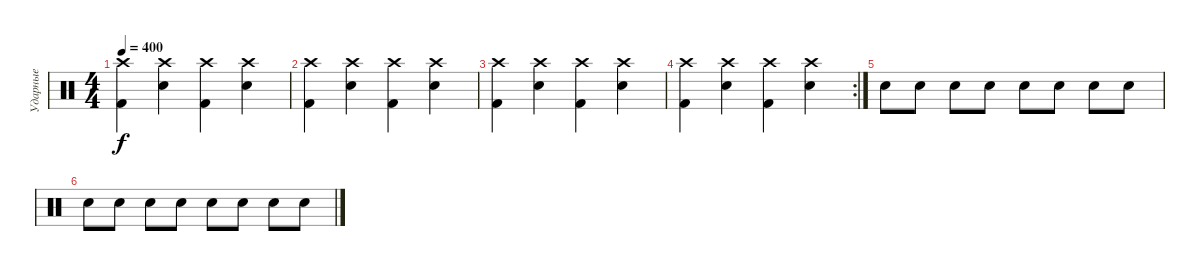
\track ("Ударные" "Ударные") {instrument percussion}
\staff {score}
\articulation defaults
\ts (4 4)
\tempo 400
\clef neutral
\ks c
("Kick (hit) 2" "Crash high (hit)").4{dy f} ("Electric Snare (hit)" "Crash high (hit)").4 ("Kick (hit) 2" "Crash high (hit)").4 ("Electric Snare (hit)" "Crash high (hit)").4 |
("Kick (hit) 2" "Crash high (hit)").4 ("Electric Snare (hit)" "Crash high (hit)").4 ("Kick (hit) 2" "Crash high (hit)").4 ("Electric Snare (hit)" "Crash high (hit)").4 |
("Kick (hit) 2" "Crash high (hit)").4 ("Electric Snare (hit)" "Crash high (hit)").4 ("Kick (hit) 2" "Crash high (hit)").4 ("Electric Snare (hit)" "Crash high (hit)").4 |
\rc 2
("Kick (hit) 2" "Crash high (hit)").4 ("Electric Snare (hit)" "Crash high (hit)").4 ("Kick (hit) 2" "Crash high (hit)").4 ("Electric Snare (hit)" "Crash high (hit)").4 |
"Electric Snare (hit)".8 "Electric Snare (hit)".8 "Electric Snare (hit)".8 "Electric Snare (hit)".8 "Electric Snare (hit)".8 "Electric Snare (hit)".8 "Electric Snare (hit)".8 "Electric Snare (hit)".8 |
"Electric Snare (hit)".8 "Electric Snare (hit)".8 "Electric Snare (hit)".8 "Electric Snare (hit)".8 "Electric Snare (hit)".8 "Electric Snare (hit)".8 "Electric Snare (hit)".8 "Electric Snare (hit)".8
